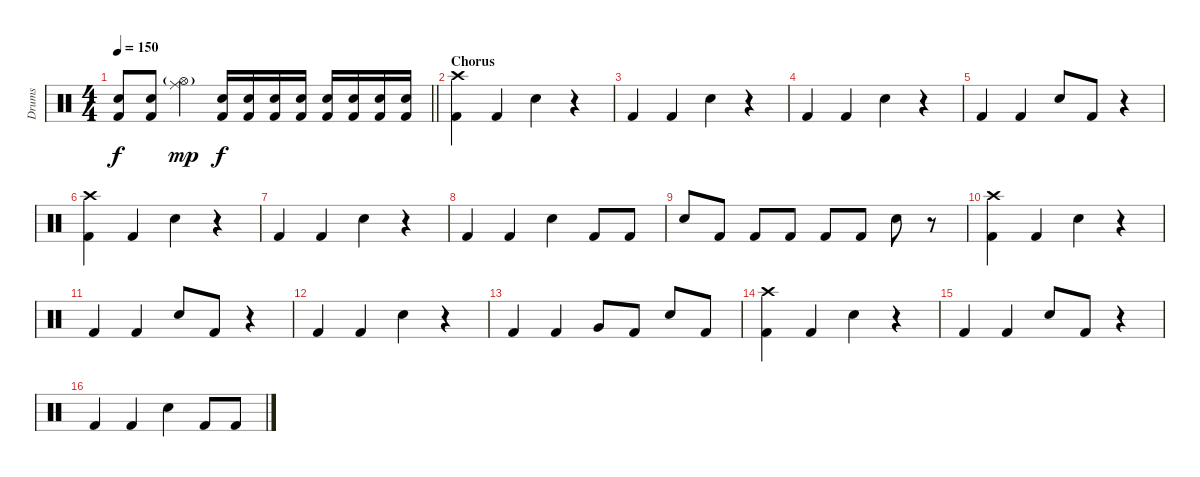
\track ("Drums" "Drums") {instrument percussion bank 1}
\staff {score}
\articulation defaults
\ts (4 4)
\tempo 150
\clef neutral
\barLineRight lightlight
\ks c
("Kick (hit) 2" "Snare (hit) 2").8{dy f} ("Kick (hit) 2" "Snare (hit) 2").8 ("Ride (middle)" "Hi-Hat (open)"{g}).4{dy mp} ("Kick (hit) 2" "Snare (hit) 2").16{dy f} ("Kick (hit) 2" "Snare (hit) 2").16 ("Kick (hit) 2" "Snare (hit) 2").16 ("Kick (hit) 2" "Snare (hit) 2").16 ("Kick (hit) 2" "Snare (hit) 2").16 ("Kick (hit) 2" "Snare (hit) 2").16 ("Kick (hit) 2" "Snare (hit) 2").16 ("Kick (hit) 2" "Snare (hit) 2").16 |
\section ("" "Chorus")
("Crash high (hit)" "Kick (hit) 2").4 "Kick (hit) 2".4 "Snare (hit) 2".4 r.4 |
"Kick (hit) 2".4 "Kick (hit) 2".4 "Snare (hit) 2".4 r.4 |
"Kick (hit) 2".4 "Kick (hit) 2".4 "Snare (hit) 2".4 r.4 |
"Kick (hit) 2".4 "Kick (hit) 2".4 "Snare (hit) 2".8 "Kick (hit) 2".8 r.4 |
("Crash high (hit)" "Kick (hit) 2").4 "Kick (hit) 2".4 "Snare (hit) 2".4 r.4 |
"Kick (hit) 2".4 "Kick (hit) 2".4 "Snare (hit) 2".4 r.4 |
"Kick (hit) 2".4 "Kick (hit) 2".4 "Snare (hit) 2".4 "Kick (hit) 2".8 "Kick (hit) 2".8 |
"Snare (hit) 2".8 "Kick (hit) 2".8 "Kick (hit) 2".8 "Kick (hit) 2".8 "Kick (hit) 2".8 "Kick (hit) 2".8 "Snare (hit) 2".8 r.8 |
("Crash high (hit)" "Kick (hit) 2").4 "Kick (hit) 2".4 "Snare (hit) 2".4 r.4 |
"Kick (hit) 2".4 "Kick (hit) 2".4 "Snare (hit) 2".8 "Kick (hit) 2".8 r.4 |
"Kick (hit) 2".4 "Kick (hit) 2".4 "Snare (hit) 2".4 r.4 |
"Kick (hit) 2".4 "Kick (hit) 2".4 "Very Low Tom (hit)".8 "Kick (hit) 2".8 "Snare (hit) 2".8 "Kick (hit) 2".8 |
("Crash high (hit)" "Kick (hit) 2").4 "Kick (hit) 2".4 "Snare (hit) 2".4 r.4 |
"Kick (hit) 2".4 "Kick (hit) 2".4 "Snare (hit) 2".8 "Kick (hit) 2".8 r.4 |
"Kick (hit) 2".4 "Kick (hit) 2".4 "Snare (hit) 2".4 "Kick (hit) 2".8 "Kick (hit) 2".8
